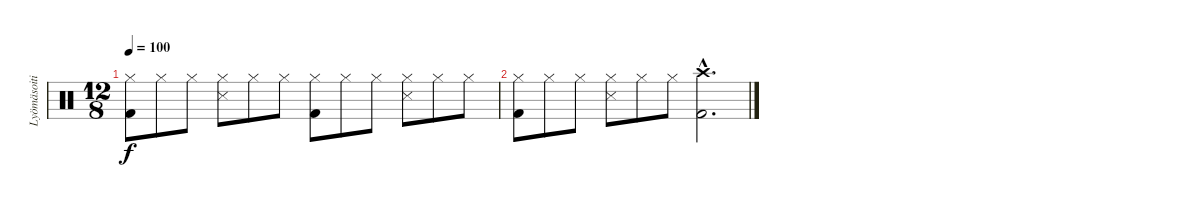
\track ("Lyömäsoitin" "Lyömäsoiti") {instrument percussion}
\staff {score}
\articulation defaults
\ts (12 8)
\tempo 100
\clef neutral
\ks c
("Hi-Hat (closed)" "Kick (hit) 2").8{dy f} "Hi-Hat (closed)".8 "Hi-Hat (closed)".8 ("Hi-Hat (closed)" "Snare (side stick) 3").8 "Hi-Hat (closed)".8 "Hi-Hat (closed)".8 ("Hi-Hat (closed)" "Kick (hit) 2").8 "Hi-Hat (closed)".8 "Hi-Hat (closed)".8 ("Hi-Hat (closed)" "Snare (side stick) 3").8 "Hi-Hat (closed)".8 "Hi-Hat (closed)".8 |
("Hi-Hat (closed)" "Kick (hit) 2").8 "Hi-Hat (closed)".8 "Hi-Hat (closed)".8 ("Hi-Hat (closed)" "Snare (side stick) 3").8 "Hi-Hat (closed)".8 "Hi-Hat (closed)".8 ("Crash high (hit)"{hac} "Kick (hit) 2"{hac}).2{d}
